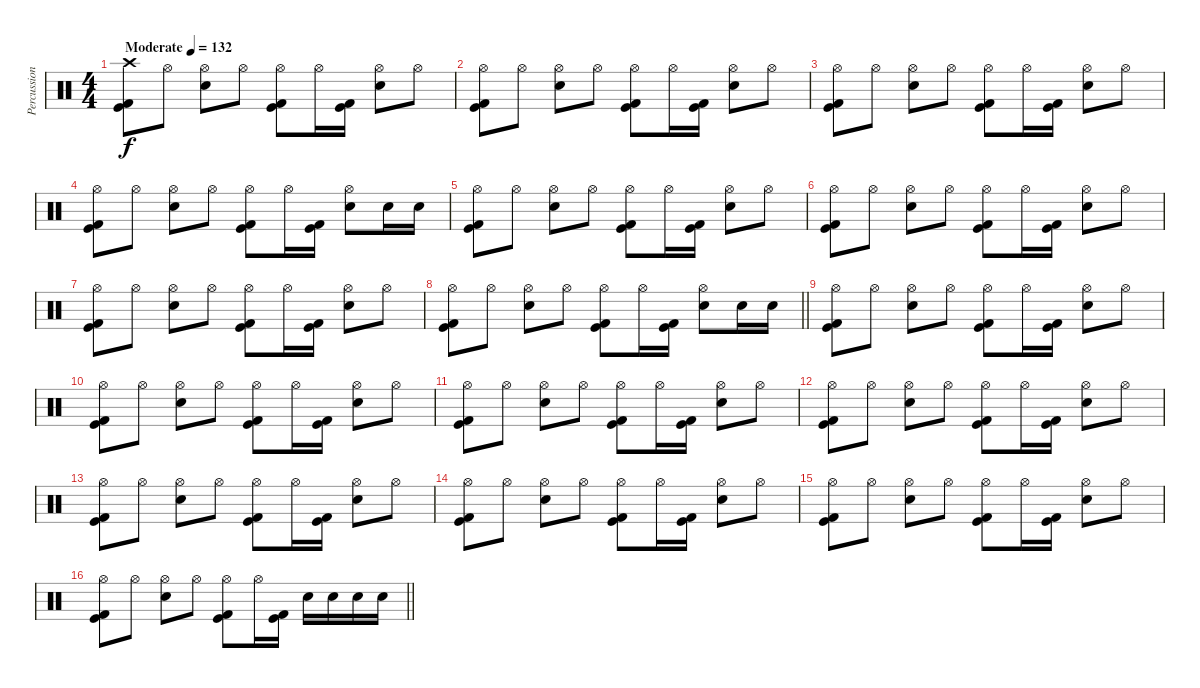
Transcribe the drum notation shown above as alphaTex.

\track ("Percussion" "Percussion") {instrument percussion}
\staff {score}
\articulation defaults
\ts (4 4)
\tempo (132 "Moderate")
\clef neutral
\ks c
("Crash high (hit)" "Kick (hit)" "Kick (hit) 2").8{dy f} "Hi-Hat (open)".8 ("Hi-Hat (open)" "Electric Snare (hit)").8 "Hi-Hat (open)".8 ("Hi-Hat (open)" "Kick (hit)" "Kick (hit) 2").8 "Hi-Hat (open)".16 ("Kick (hit)" "Kick (hit) 2").16 ("Hi-Hat (open)" "Electric Snare (hit)").8 "Hi-Hat (open)".8 |
("Hi-Hat (open)" "Kick (hit)" "Kick (hit) 2").8 "Hi-Hat (open)".8 ("Hi-Hat (open)" "Electric Snare (hit)").8 "Hi-Hat (open)".8 ("Hi-Hat (open)" "Kick (hit)" "Kick (hit) 2").8 "Hi-Hat (open)".16 ("Kick (hit)" "Kick (hit) 2").16 ("Hi-Hat (open)" "Electric Snare (hit)").8 "Hi-Hat (open)".8 |
("Hi-Hat (open)" "Kick (hit)" "Kick (hit) 2").8 "Hi-Hat (open)".8 ("Hi-Hat (open)" "Electric Snare (hit)").8 "Hi-Hat (open)".8 ("Hi-Hat (open)" "Kick (hit)" "Kick (hit) 2").8 "Hi-Hat (open)".16 ("Kick (hit)" "Kick (hit) 2").16 ("Hi-Hat (open)" "Electric Snare (hit)").8 "Hi-Hat (open)".8 |
("Hi-Hat (open)" "Kick (hit)" "Kick (hit) 2").8 "Hi-Hat (open)".8 ("Hi-Hat (open)" "Electric Snare (hit)").8 "Hi-Hat (open)".8 ("Hi-Hat (open)" "Kick (hit)" "Kick (hit) 2").8 "Hi-Hat (open)".16 ("Kick (hit)" "Kick (hit) 2").16 ("Hi-Hat (open)" "Electric Snare (hit)").8 "Electric Snare (hit)".16 "Electric Snare (hit)".16 |
("Hi-Hat (open)" "Kick (hit)" "Kick (hit) 2").8 "Hi-Hat (open)".8 ("Hi-Hat (open)" "Electric Snare (hit)").8 "Hi-Hat (open)".8 ("Hi-Hat (open)" "Kick (hit)" "Kick (hit) 2").8 "Hi-Hat (open)".16 ("Kick (hit)" "Kick (hit) 2").16 ("Hi-Hat (open)" "Electric Snare (hit)").8 "Hi-Hat (open)".8 |
("Hi-Hat (open)" "Kick (hit)" "Kick (hit) 2").8 "Hi-Hat (open)".8 ("Hi-Hat (open)" "Electric Snare (hit)").8 "Hi-Hat (open)".8 ("Hi-Hat (open)" "Kick (hit)" "Kick (hit) 2").8 "Hi-Hat (open)".16 ("Kick (hit)" "Kick (hit) 2").16 ("Hi-Hat (open)" "Electric Snare (hit)").8 "Hi-Hat (open)".8 |
("Hi-Hat (open)" "Kick (hit)" "Kick (hit) 2").8 "Hi-Hat (open)".8 ("Hi-Hat (open)" "Electric Snare (hit)").8 "Hi-Hat (open)".8 ("Hi-Hat (open)" "Kick (hit)" "Kick (hit) 2").8 "Hi-Hat (open)".16 ("Kick (hit)" "Kick (hit) 2").16 ("Hi-Hat (open)" "Electric Snare (hit)").8 "Hi-Hat (open)".8 |
\barLineRight lightlight
("Hi-Hat (open)" "Kick (hit)" "Kick (hit) 2").8 "Hi-Hat (open)".8 ("Hi-Hat (open)" "Electric Snare (hit)").8 "Hi-Hat (open)".8 ("Hi-Hat (open)" "Kick (hit)" "Kick (hit) 2").8 "Hi-Hat (open)".16 ("Kick (hit)" "Kick (hit) 2").16 ("Hi-Hat (open)" "Electric Snare (hit)").8 "Electric Snare (hit)".16 "Electric Snare (hit)".16 |
\section ("" "")
("Hi-Hat (open)" "Kick (hit)" "Kick (hit) 2").8 "Hi-Hat (open)".8 ("Hi-Hat (open)" "Electric Snare (hit)").8 "Hi-Hat (open)".8 ("Hi-Hat (open)" "Kick (hit)" "Kick (hit) 2").8 "Hi-Hat (open)".16 ("Kick (hit)" "Kick (hit) 2").16 ("Hi-Hat (open)" "Electric Snare (hit)").8 "Hi-Hat (open)".8 |
("Hi-Hat (open)" "Kick (hit)" "Kick (hit) 2").8 "Hi-Hat (open)".8 ("Hi-Hat (open)" "Electric Snare (hit)").8 "Hi-Hat (open)".8 ("Hi-Hat (open)" "Kick (hit)" "Kick (hit) 2").8 "Hi-Hat (open)".16 ("Kick (hit)" "Kick (hit) 2").16 ("Hi-Hat (open)" "Electric Snare (hit)").8 "Hi-Hat (open)".8 |
("Hi-Hat (open)" "Kick (hit)" "Kick (hit) 2").8 "Hi-Hat (open)".8 ("Hi-Hat (open)" "Electric Snare (hit)").8 "Hi-Hat (open)".8 ("Hi-Hat (open)" "Kick (hit)" "Kick (hit) 2").8 "Hi-Hat (open)".16 ("Kick (hit)" "Kick (hit) 2").16 ("Hi-Hat (open)" "Electric Snare (hit)").8 "Hi-Hat (open)".8 |
("Hi-Hat (open)" "Kick (hit)" "Kick (hit) 2").8 "Hi-Hat (open)".8 ("Hi-Hat (open)" "Electric Snare (hit)").8 "Hi-Hat (open)".8 ("Hi-Hat (open)" "Kick (hit)" "Kick (hit) 2").8 "Hi-Hat (open)".16 ("Kick (hit)" "Kick (hit) 2").16 ("Hi-Hat (open)" "Electric Snare (hit)").8 "Hi-Hat (open)".8 |
("Hi-Hat (open)" "Kick (hit)" "Kick (hit) 2").8 "Hi-Hat (open)".8 ("Hi-Hat (open)" "Electric Snare (hit)").8 "Hi-Hat (open)".8 ("Hi-Hat (open)" "Kick (hit)" "Kick (hit) 2").8 "Hi-Hat (open)".16 ("Kick (hit)" "Kick (hit) 2").16 ("Hi-Hat (open)" "Electric Snare (hit)").8 "Hi-Hat (open)".8 |
("Hi-Hat (open)" "Kick (hit)" "Kick (hit) 2").8 "Hi-Hat (open)".8 ("Hi-Hat (open)" "Electric Snare (hit)").8 "Hi-Hat (open)".8 ("Hi-Hat (open)" "Kick (hit)" "Kick (hit) 2").8 "Hi-Hat (open)".16 ("Kick (hit)" "Kick (hit) 2").16 ("Hi-Hat (open)" "Electric Snare (hit)").8 "Hi-Hat (open)".8 |
("Hi-Hat (open)" "Kick (hit)" "Kick (hit) 2").8 "Hi-Hat (open)".8 ("Hi-Hat (open)" "Electric Snare (hit)").8 "Hi-Hat (open)".8 ("Hi-Hat (open)" "Kick (hit)" "Kick (hit) 2").8 "Hi-Hat (open)".16 ("Kick (hit)" "Kick (hit) 2").16 ("Hi-Hat (open)" "Electric Snare (hit)").8 "Hi-Hat (open)".8 |
\barLineRight lightlight
("Hi-Hat (open)" "Kick (hit)" "Kick (hit) 2").8 "Hi-Hat (open)".8 ("Hi-Hat (open)" "Electric Snare (hit)").8 "Hi-Hat (open)".8 ("Hi-Hat (open)" "Kick (hit)" "Kick (hit) 2").8 "Hi-Hat (open)".16 ("Kick (hit)" "Kick (hit) 2").16 "Electric Snare (hit)".16 "Electric Snare (hit)".16 "Electric Snare (hit)".16 "Electric Snare (hit)".16
